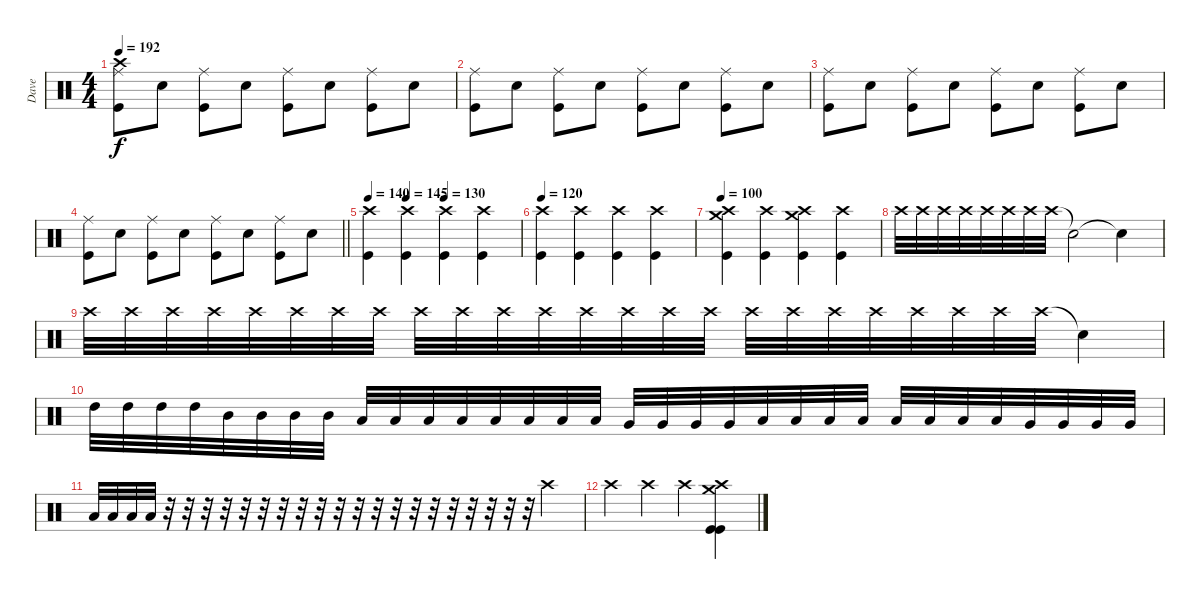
\track ("Dave" "Dave") {instrument percussion}
\staff {score}
\articulation defaults
\ts (4 4)
\tempo 192
\clef neutral
\ks c
("Crash high (hit)" "Ride (middle)" "Kick (hit)").8{dy f} "Snare (hit) 2".8 ("Ride (middle)" "Kick (hit)").8 "Snare (hit) 2".8 ("Ride (middle)" "Kick (hit)").8 "Snare (hit) 2".8 ("Ride (middle)" "Kick (hit)").8 "Snare (hit) 2".8 |
("Ride (middle)" "Kick (hit)").8 "Snare (hit) 2".8 ("Ride (middle)" "Kick (hit)").8 "Snare (hit) 2".8 ("Ride (middle)" "Kick (hit)").8 "Snare (hit) 2".8 ("Ride (middle)" "Kick (hit)").8 "Snare (hit) 2".8 |
("Ride (middle)" "Kick (hit)").8 "Snare (hit) 2".8 ("Ride (middle)" "Kick (hit)").8 "Snare (hit) 2".8 ("Ride (middle)" "Kick (hit)").8 "Snare (hit) 2".8 ("Ride (middle)" "Kick (hit)").8 "Snare (hit) 2".8 |
\barLineRight lightlight
("Ride (middle)" "Kick (hit)").8 "Snare (hit) 2".8 ("Ride (middle)" "Kick (hit)").8 "Snare (hit) 2".8 ("Ride (middle)" "Kick (hit)").8 "Snare (hit) 2".8 ("Ride (middle)" "Kick (hit)").8 "Snare (hit) 2".8 |
\tempo 140
\tempo (145 0.25)
\tempo (130 0.5)
("Crash high (hit)" "Kick (hit)").4 ("Crash high (hit)" "Kick (hit)").4 ("Crash high (hit)" "Kick (hit)").4 ("Crash high (hit)" "Kick (hit)").4 |
\tempo 120
("Crash high (hit)" "Kick (hit)").4 ("Crash high (hit)" "Kick (hit)").4 ("Crash high (hit)" "Kick (hit)").4 ("Crash high (hit)" "Kick (hit)").4 |
\tempo 100
("Crash high (hit)" "Crash medium (hit)" "Kick (hit)").4 ("Crash high (hit)" "Kick (hit)").4 ("Crash high (hit)" "Crash medium (hit)" "Kick (hit)").4 ("Crash high (hit)" "Kick (hit)").4 |
"Crash high (hit)".32 "Crash high (hit)".32 "Crash high (hit)".32 "Crash high (hit)".32 "Crash high (hit)".32 "Crash high (hit)".32 "Crash high (hit)".32 "Crash high (hit)".32 "Snare (hit)"{t}.2 "Snare (hit)"{t}.4 |
"Crash high (hit)".32 "Crash high (hit)".32 "Crash high (hit)".32 "Crash high (hit)".32 "Crash high (hit)".32 "Crash high (hit)".32 "Crash high (hit)".32 "Crash high (hit)".32 "Crash high (hit)".32 "Crash high (hit)".32 "Crash high (hit)".32 "Crash high (hit)".32 "Crash high (hit)".32 "Crash high (hit)".32 "Crash high (hit)".32 "Crash high (hit)".32 "Crash high (hit)".32 "Crash high (hit)".32 "Crash high (hit)".32 "Crash high (hit)".32 "Crash high (hit)".32 "Crash high (hit)".32 "Crash high (hit)".32 "Crash high (hit)".32 "Snare (hit)"{t}.4 |
"High Tom (hit)".32 "High Tom (hit)".32 "High Tom (hit)".32 "High Tom (hit)".32 "Mid Tom (hit)".32 "Mid Tom (hit)".32 "Mid Tom (hit)".32 "Mid Tom (hit)".32 "Low Tom (hit)".32 "Low Tom (hit)".32 "Low Tom (hit)".32 "Low Tom (hit)".32 "Low Tom (hit)".32 "Low Tom (hit)".32 "Low Tom (hit)".32 "Low Tom (hit)".32 "Very Low Tom (hit)".32 "Very Low Tom (hit)".32 "Very Low Tom (hit)".32 "Very Low Tom (hit)".32 "Low Floor Tom (hit)".32 "Low Floor Tom (hit)".32 "Low Floor Tom (hit)".32 "Low Floor Tom (hit)".32 "Low Tom (hit)".32 "Low Tom (hit)".32 "Low Tom (hit)".32 "Low Tom (hit)".32 "Very Low Tom (hit)".32 "Very Low Tom (hit)".32 "Very Low Tom (hit)".32 "Very Low Tom (hit)".32 |
"Low Tom (hit)".32 "Low Tom (hit)".32 "Low Tom (hit)".32 "Low Tom (hit)".32 r.32 r.32 r.32 r.32 r.32 r.32 r.32 r.32 r.32 r.32 r.32 r.32 r.32 r.32 r.32 r.32 r.32 r.32 r.32 r.32 "Crash high (hit)".4 |
"Crash high (hit)".4 "Crash high (hit)".4 "Crash high (hit)".4 ("Crash medium (hit)" "Crash high (hit)" "Kick (hit)" "Kick (hit)").4
